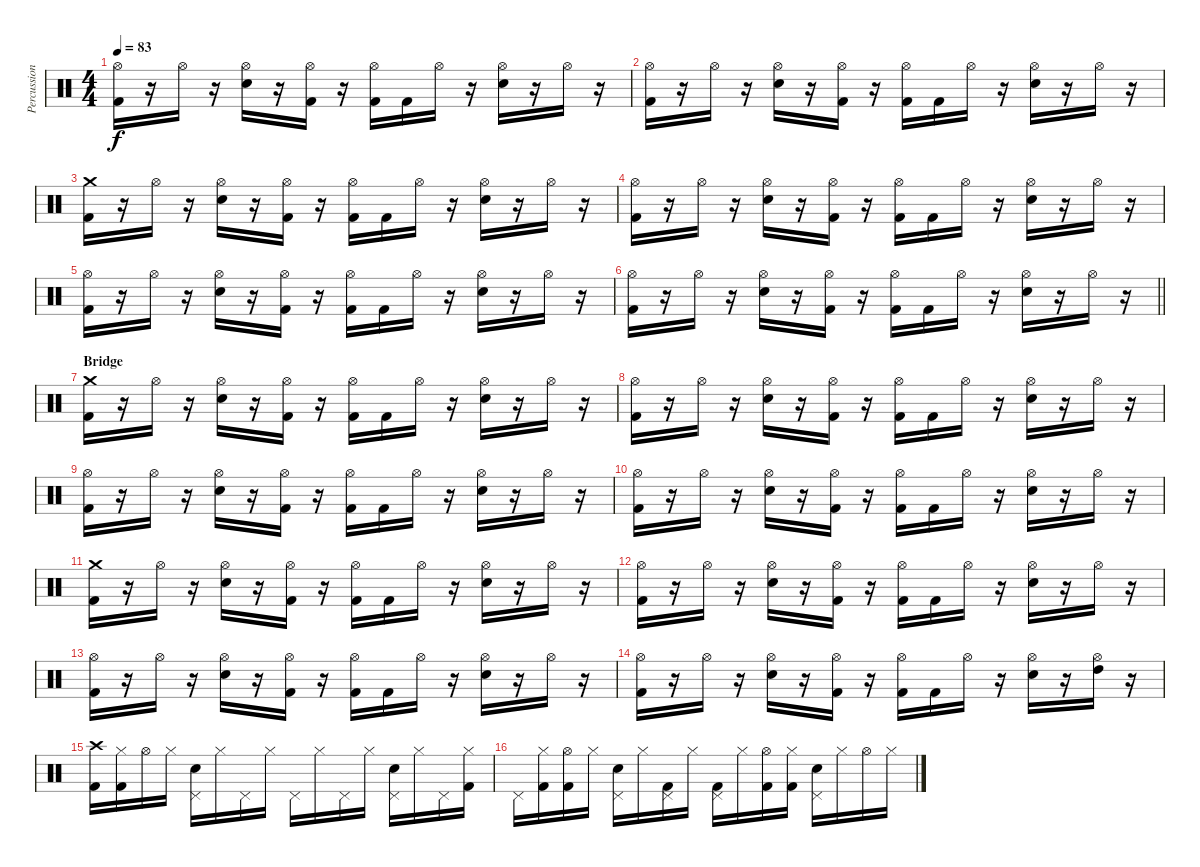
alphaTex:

\track ("Percussion" "Percussion") {instrument percussion}
\staff {score}
\articulation defaults
\ts (4 4)
\tempo 83
\clef neutral
\ks c
("Hi-Hat (open)" "Kick (hit) 2").16{dy f} r.16 "Hi-Hat (open)".16 r.16 ("Hi-Hat (open)" "Electric Snare (hit)").16 r.16 ("Hi-Hat (open)" "Kick (hit) 2").16 r.16 ("Hi-Hat (open)" "Kick (hit) 2").16 "Kick (hit) 2".16 "Hi-Hat (open)".16 r.16 ("Hi-Hat (open)" "Electric Snare (hit)").16 r.16 "Hi-Hat (open)".16 r.16 |
("Hi-Hat (open)" "Kick (hit) 2").16 r.16 "Hi-Hat (open)".16 r.16 ("Hi-Hat (open)" "Electric Snare (hit)").16 r.16 ("Hi-Hat (open)" "Kick (hit) 2").16 r.16 ("Hi-Hat (open)" "Kick (hit) 2").16 "Kick (hit) 2".16 "Hi-Hat (open)".16 r.16 ("Hi-Hat (open)" "Electric Snare (hit)").16 r.16 "Hi-Hat (open)".16 r.16 |
("Crash medium (hit)" "Kick (hit) 2").16 r.16 "Hi-Hat (open)".16 r.16 ("Hi-Hat (open)" "Electric Snare (hit)").16 r.16 ("Hi-Hat (open)" "Kick (hit) 2").16 r.16 ("Hi-Hat (open)" "Kick (hit) 2").16 "Kick (hit) 2".16 "Hi-Hat (open)".16 r.16 ("Hi-Hat (open)" "Electric Snare (hit)").16 r.16 "Hi-Hat (open)".16 r.16 |
("Hi-Hat (open)" "Kick (hit) 2").16 r.16 "Hi-Hat (open)".16 r.16 ("Hi-Hat (open)" "Electric Snare (hit)").16 r.16 ("Hi-Hat (open)" "Kick (hit) 2").16 r.16 ("Hi-Hat (open)" "Kick (hit) 2").16 "Kick (hit) 2".16 "Hi-Hat (open)".16 r.16 ("Hi-Hat (open)" "Electric Snare (hit)").16 r.16 "Hi-Hat (open)".16 r.16 |
("Hi-Hat (open)" "Kick (hit) 2").16 r.16 "Hi-Hat (open)".16 r.16 ("Hi-Hat (open)" "Electric Snare (hit)").16 r.16 ("Hi-Hat (open)" "Kick (hit) 2").16 r.16 ("Hi-Hat (open)" "Kick (hit) 2").16 "Kick (hit) 2".16 "Hi-Hat (open)".16 r.16 ("Hi-Hat (open)" "Electric Snare (hit)").16 r.16 "Hi-Hat (open)".16 r.16 |
\barLineRight lightlight
("Hi-Hat (open)" "Kick (hit) 2").16 r.16 "Hi-Hat (open)".16 r.16 ("Hi-Hat (open)" "Electric Snare (hit)").16 r.16 ("Hi-Hat (open)" "Kick (hit) 2").16 r.16 ("Hi-Hat (open)" "Kick (hit) 2").16 "Kick (hit) 2".16 "Hi-Hat (open)".16 r.16 ("Hi-Hat (open)" "Electric Snare (hit)").16 r.16 "Hi-Hat (open)".16 r.16 |
\section ("" "Bridge")
("Crash medium (hit)" "Kick (hit) 2").16 r.16 "Hi-Hat (open)".16 r.16 ("Hi-Hat (open)" "Electric Snare (hit)").16 r.16 ("Hi-Hat (open)" "Kick (hit) 2").16 r.16 ("Hi-Hat (open)" "Kick (hit) 2").16 "Kick (hit) 2".16 "Hi-Hat (open)".16 r.16 ("Hi-Hat (open)" "Electric Snare (hit)").16 r.16 "Hi-Hat (open)".16 r.16 |
("Hi-Hat (open)" "Kick (hit) 2").16 r.16 "Hi-Hat (open)".16 r.16 ("Hi-Hat (open)" "Electric Snare (hit)").16 r.16 ("Hi-Hat (open)" "Kick (hit) 2").16 r.16 ("Hi-Hat (open)" "Kick (hit) 2").16 "Kick (hit) 2".16 "Hi-Hat (open)".16 r.16 ("Hi-Hat (open)" "Electric Snare (hit)").16 r.16 "Hi-Hat (open)".16 r.16 |
("Hi-Hat (open)" "Kick (hit) 2").16 r.16 "Hi-Hat (open)".16 r.16 ("Hi-Hat (open)" "Electric Snare (hit)").16 r.16 ("Hi-Hat (open)" "Kick (hit) 2").16 r.16 ("Hi-Hat (open)" "Kick (hit) 2").16 "Kick (hit) 2".16 "Hi-Hat (open)".16 r.16 ("Hi-Hat (open)" "Electric Snare (hit)").16 r.16 "Hi-Hat (open)".16 r.16 |
("Hi-Hat (open)" "Kick (hit) 2").16 r.16 "Hi-Hat (open)".16 r.16 ("Hi-Hat (open)" "Electric Snare (hit)").16 r.16 ("Hi-Hat (open)" "Kick (hit) 2").16 r.16 ("Hi-Hat (open)" "Kick (hit) 2").16 "Kick (hit) 2".16 "Hi-Hat (open)".16 r.16 ("Hi-Hat (open)" "Electric Snare (hit)").16 r.16 "Hi-Hat (open)".16 r.16 |
("Crash medium (hit)" "Kick (hit) 2").16 r.16 "Hi-Hat (open)".16 r.16 ("Hi-Hat (open)" "Electric Snare (hit)").16 r.16 ("Hi-Hat (open)" "Kick (hit) 2").16 r.16 ("Hi-Hat (open)" "Kick (hit) 2").16 "Kick (hit) 2".16 "Hi-Hat (open)".16 r.16 ("Hi-Hat (open)" "Electric Snare (hit)").16 r.16 "Hi-Hat (open)".16 r.16 |
("Hi-Hat (open)" "Kick (hit) 2").16 r.16 "Hi-Hat (open)".16 r.16 ("Hi-Hat (open)" "Electric Snare (hit)").16 r.16 ("Hi-Hat (open)" "Kick (hit) 2").16 r.16 ("Hi-Hat (open)" "Kick (hit) 2").16 "Kick (hit) 2".16 "Hi-Hat (open)".16 r.16 ("Hi-Hat (open)" "Electric Snare (hit)").16 r.16 "Hi-Hat (open)".16 r.16 |
("Hi-Hat (open)" "Kick (hit) 2").16 r.16 "Hi-Hat (open)".16 r.16 ("Hi-Hat (open)" "Electric Snare (hit)").16 r.16 ("Hi-Hat (open)" "Kick (hit) 2").16 r.16 ("Hi-Hat (open)" "Kick (hit) 2").16 "Kick (hit) 2".16 "Hi-Hat (open)".16 r.16 ("Hi-Hat (open)" "Electric Snare (hit)").16 r.16 "Hi-Hat (open)".16 r.16 |
("Hi-Hat (open)" "Kick (hit) 2").16 r.16 "Hi-Hat (open)".16 r.16 ("Hi-Hat (open)" "Electric Snare (hit)").16 r.16 ("Hi-Hat (open)" "Kick (hit) 2").16 r.16 ("Hi-Hat (open)" "Kick (hit) 2").16 "Kick (hit) 2".16 "Hi-Hat (open)".16 r.16 ("Hi-Hat (open)" "Electric Snare (hit)").16 r.16 ("Hi-Hat (open)" "High Tom (hit)").16 r.16 |
("Crash high (hit)" "Kick (hit) 2").16 ("Hi-Hat (closed)" "Kick (hit) 2").16 "Hi-Hat (open)".16 "Hi-Hat (closed)".16 ("Pedal Hi-Hat (hit)" "Electric Snare (hit)").16 "Hi-Hat (closed)".16 "Pedal Hi-Hat (hit)".16 "Hi-Hat (closed)".16 "Pedal Hi-Hat (hit)".16 "Hi-Hat (closed)".16 "Pedal Hi-Hat (hit)".16 "Hi-Hat (closed)".16 ("Pedal Hi-Hat (hit)" "Electric Snare (hit)").16 "Hi-Hat (closed)".16 "Pedal Hi-Hat (hit)".16 ("Hi-Hat (closed)" "Kick (hit) 2").16 |
"Pedal Hi-Hat (hit)".16 ("Hi-Hat (closed)" "Kick (hit) 2").16 ("Hi-Hat (open)" "Kick (hit) 2").16 "Hi-Hat (closed)".16 ("Pedal Hi-Hat (hit)" "Electric Snare (hit)").16 "Hi-Hat (closed)".16 ("Pedal Hi-Hat (hit)" "Kick (hit) 2").16 "Hi-Hat (closed)".16 ("Pedal Hi-Hat (hit)" "Kick (hit) 2").16 "Hi-Hat (closed)".16 ("Hi-Hat (open)" "Kick (hit) 2").16 ("Hi-Hat (closed)" "Kick (hit) 2").16 ("Pedal Hi-Hat (hit)" "Electric Snare (hit)").16 "Hi-Hat (closed)".16 "Hi-Hat (open)".16 "Hi-Hat (closed)".16
